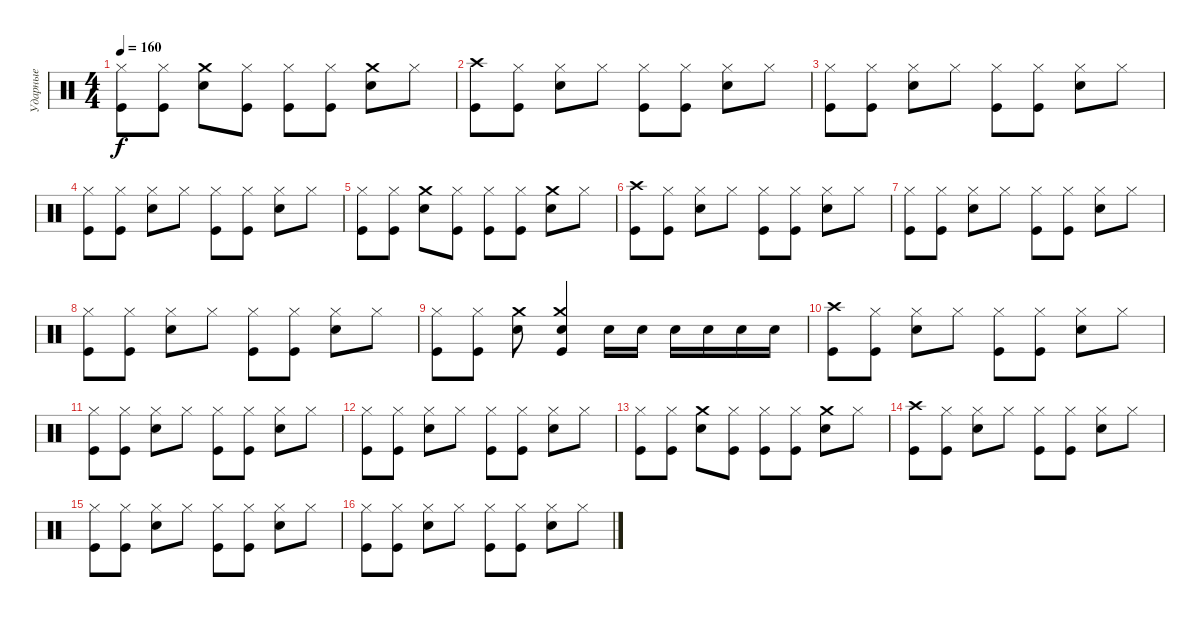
\track ("Ударные" "Ударные") {instrument percussion}
\staff {score}
\articulation defaults
\ts (4 4)
\tempo 160
\clef neutral
\ks c
("Hi-Hat (closed)" "Kick (hit)").8{dy f} ("Hi-Hat (closed)" "Kick (hit)").8 ("Crash medium (hit)" "Snare (hit) 2").8 ("Hi-Hat (closed)" "Kick (hit)").8 ("Hi-Hat (closed)" "Kick (hit)").8 ("Hi-Hat (closed)" "Kick (hit)").8 ("Crash medium (hit)" "Snare (hit) 2").8 "Hi-Hat (closed)".8 |
("Crash high (hit)" "Kick (hit)").8 ("Hi-Hat (closed)" "Kick (hit)").8 ("Hi-Hat (closed)" "Snare (hit) 2").8 "Hi-Hat (closed)".8 ("Hi-Hat (closed)" "Kick (hit)").8 ("Hi-Hat (closed)" "Kick (hit)").8 ("Hi-Hat (closed)" "Snare (hit) 2").8 "Hi-Hat (closed)".8 |
("Hi-Hat (closed)" "Kick (hit)").8 ("Hi-Hat (closed)" "Kick (hit)").8 ("Hi-Hat (closed)" "Snare (hit) 2").8 "Hi-Hat (closed)".8 ("Hi-Hat (closed)" "Kick (hit)").8 ("Hi-Hat (closed)" "Kick (hit)").8 ("Hi-Hat (closed)" "Snare (hit) 2").8 "Hi-Hat (closed)".8 |
("Hi-Hat (closed)" "Kick (hit)").8 ("Hi-Hat (closed)" "Kick (hit)").8 ("Hi-Hat (closed)" "Snare (hit) 2").8 "Hi-Hat (closed)".8 ("Hi-Hat (closed)" "Kick (hit)").8 ("Hi-Hat (closed)" "Kick (hit)").8 ("Hi-Hat (closed)" "Snare (hit) 2").8 "Hi-Hat (closed)".8 |
("Hi-Hat (closed)" "Kick (hit)").8 ("Hi-Hat (closed)" "Kick (hit)").8 ("Crash medium (hit)" "Snare (hit) 2").8 ("Hi-Hat (closed)" "Kick (hit)").8 ("Hi-Hat (closed)" "Kick (hit)").8 ("Hi-Hat (closed)" "Kick (hit)").8 ("Crash medium (hit)" "Snare (hit) 2").8 "Hi-Hat (closed)".8 |
("Crash high (hit)" "Kick (hit)").8 ("Hi-Hat (closed)" "Kick (hit)").8 ("Hi-Hat (closed)" "Snare (hit) 2").8 "Hi-Hat (closed)".8 ("Hi-Hat (closed)" "Kick (hit)").8 ("Hi-Hat (closed)" "Kick (hit)").8 ("Hi-Hat (closed)" "Snare (hit) 2").8 "Hi-Hat (closed)".8 |
("Hi-Hat (closed)" "Kick (hit)").8 ("Hi-Hat (closed)" "Kick (hit)").8 ("Hi-Hat (closed)" "Snare (hit) 2").8 "Hi-Hat (closed)".8 ("Hi-Hat (closed)" "Kick (hit)").8 ("Hi-Hat (closed)" "Kick (hit)").8 ("Hi-Hat (closed)" "Snare (hit) 2").8 "Hi-Hat (closed)".8 |
("Hi-Hat (closed)" "Kick (hit)").8 ("Hi-Hat (closed)" "Kick (hit)").8 ("Hi-Hat (closed)" "Snare (hit) 2").8 "Hi-Hat (closed)".8 ("Hi-Hat (closed)" "Kick (hit)").8 ("Hi-Hat (closed)" "Kick (hit)").8 ("Hi-Hat (closed)" "Snare (hit) 2").8 "Hi-Hat (closed)".8 |
("Hi-Hat (closed)" "Kick (hit)").8 ("Hi-Hat (closed)" "Kick (hit)").8 ("Crash medium (hit)" "Snare (hit) 2").8 ("Kick (hit)" "Snare (hit) 2" "Crash medium (hit)").4 "Snare (hit) 2".16 "Snare (hit) 2".16 "Snare (hit) 2".16 "Snare (hit) 2".16 "Snare (hit) 2".16 "Snare (hit) 2".16 |
("Crash high (hit)" "Kick (hit)").8 ("Hi-Hat (closed)" "Kick (hit)").8 ("Hi-Hat (closed)" "Snare (hit) 2").8 "Hi-Hat (closed)".8 ("Hi-Hat (closed)" "Kick (hit)").8 ("Hi-Hat (closed)" "Kick (hit)").8 ("Hi-Hat (closed)" "Snare (hit) 2").8 "Hi-Hat (closed)".8 |
("Hi-Hat (closed)" "Kick (hit)").8 ("Hi-Hat (closed)" "Kick (hit)").8 ("Hi-Hat (closed)" "Snare (hit) 2").8 "Hi-Hat (closed)".8 ("Hi-Hat (closed)" "Kick (hit)").8 ("Hi-Hat (closed)" "Kick (hit)").8 ("Hi-Hat (closed)" "Snare (hit) 2").8 "Hi-Hat (closed)".8 |
("Hi-Hat (closed)" "Kick (hit)").8 ("Hi-Hat (closed)" "Kick (hit)").8 ("Hi-Hat (closed)" "Snare (hit) 2").8 "Hi-Hat (closed)".8 ("Hi-Hat (closed)" "Kick (hit)").8 ("Hi-Hat (closed)" "Kick (hit)").8 ("Hi-Hat (closed)" "Snare (hit) 2").8 "Hi-Hat (closed)".8 |
("Hi-Hat (closed)" "Kick (hit)").8 ("Hi-Hat (closed)" "Kick (hit)").8 ("Crash medium (hit)" "Snare (hit) 2").8 ("Hi-Hat (closed)" "Kick (hit)").8 ("Hi-Hat (closed)" "Kick (hit)").8 ("Hi-Hat (closed)" "Kick (hit)").8 ("Crash medium (hit)" "Snare (hit) 2").8 "Hi-Hat (closed)".8 |
("Crash high (hit)" "Kick (hit)").8 ("Hi-Hat (closed)" "Kick (hit)").8 ("Hi-Hat (closed)" "Snare (hit) 2").8 "Hi-Hat (closed)".8 ("Hi-Hat (closed)" "Kick (hit)").8 ("Hi-Hat (closed)" "Kick (hit)").8 ("Hi-Hat (closed)" "Snare (hit) 2").8 "Hi-Hat (closed)".8 |
("Hi-Hat (closed)" "Kick (hit)").8 ("Hi-Hat (closed)" "Kick (hit)").8 ("Hi-Hat (closed)" "Snare (hit) 2").8 "Hi-Hat (closed)".8 ("Hi-Hat (closed)" "Kick (hit)").8 ("Hi-Hat (closed)" "Kick (hit)").8 ("Hi-Hat (closed)" "Snare (hit) 2").8 "Hi-Hat (closed)".8 |
("Hi-Hat (closed)" "Kick (hit)").8 ("Hi-Hat (closed)" "Kick (hit)").8 ("Hi-Hat (closed)" "Snare (hit) 2").8 "Hi-Hat (closed)".8 ("Hi-Hat (closed)" "Kick (hit)").8 ("Hi-Hat (closed)" "Kick (hit)").8 ("Hi-Hat (closed)" "Snare (hit) 2").8 "Hi-Hat (closed)".8
